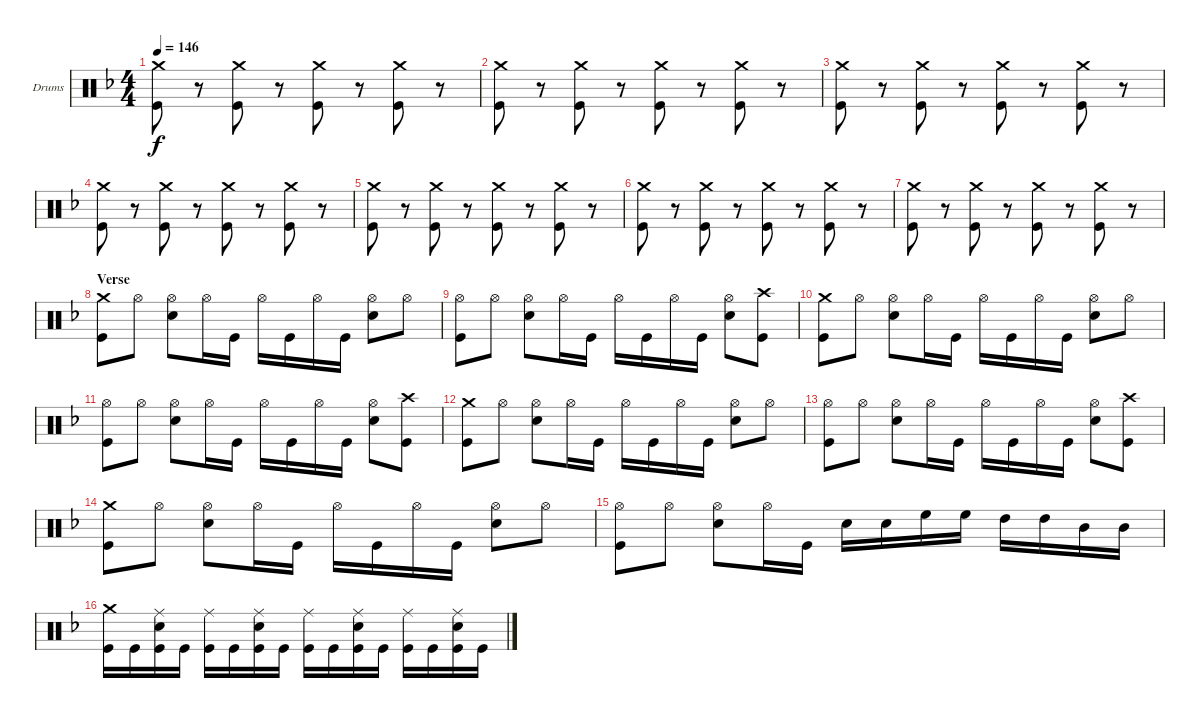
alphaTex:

\defaultSystemsLayout 4
\bracketExtendMode groupsimilarinstruments
\firstSystemTrackNameOrientation horizontal
\otherSystemsTrackNameOrientation horizontal
\track ("Gar Samuelson (Drums)" "Drums") {instrument percussion}
\staff {score}
\articulation defaults
\ts (4 4)
\tempo 146
\clef neutral
\scale
0.333333
\ks dminor
("Crash medium (hit)" "Kick (hit)").8{dy f} r.8 ("Crash medium (hit)" "Kick (hit)").8 r.8 ("Crash medium (hit)" "Kick (hit)").8 r.8 ("Crash medium (hit)" "Kick (hit)").8 r.8 |
\scale
0.333333 ("Crash medium (hit)" "Kick (hit)").8 r.8 ("Crash medium (hit)" "Kick (hit)").8 r.8 ("Crash medium (hit)" "Kick (hit)").8 r.8 ("Crash medium (hit)" "Kick (hit)").8 r.8 |
\scale
0.333333 ("Crash medium (hit)" "Kick (hit)").8 r.8 ("Crash medium (hit)" "Kick (hit)").8 r.8 ("Crash medium (hit)" "Kick (hit)").8 r.8 ("Crash medium (hit)" "Kick (hit)").8 r.8 |
\scale
0.333333 ("Crash medium (hit)" "Kick (hit)").8 r.8 ("Crash medium (hit)" "Kick (hit)").8 r.8 ("Crash medium (hit)" "Kick (hit)").8 r.8 ("Crash medium (hit)" "Kick (hit)").8 r.8 |
\scale
0.333333 ("Crash medium (hit)" "Kick (hit)").8 r.8 ("Crash medium (hit)" "Kick (hit)").8 r.8 ("Crash medium (hit)" "Kick (hit)").8 r.8 ("Crash medium (hit)" "Kick (hit)").8 r.8 |
\scale
0.333333 ("Crash medium (hit)" "Kick (hit)").8 r.8 ("Crash medium (hit)" "Kick (hit)").8 r.8 ("Crash medium (hit)" "Kick (hit)").8 r.8 ("Crash medium (hit)" "Kick (hit)").8 r.8 |
\scale
0.333333 ("Crash medium (hit)" "Kick (hit)").8 r.8 ("Crash medium (hit)" "Kick (hit)").8 r.8 ("Crash medium (hit)" "Kick (hit)").8 r.8 ("Crash medium (hit)" "Kick (hit)").8 r.8 |
\section ("" "Verse")
\scale
0.333333 ("Crash medium (hit)" "Kick (hit)").8 "Hi-Hat (open)".8 ("Hi-Hat (open)" "Snare (hit) 2").8 "Hi-Hat (open)".16 "Kick (hit)".16 "Hi-Hat (open)".16 "Kick (hit)".16 "Hi-Hat (open)".16 "Kick (hit)".16 ("Hi-Hat (open)" "Snare (hit) 2").8 "Hi-Hat (open)".8 |
\scale
0.333333 ("Hi-Hat (open)" "Kick (hit)").8 "Hi-Hat (open)".8 ("Hi-Hat (open)" "Snare (hit) 2").8 "Hi-Hat (open)".16 "Kick (hit)".16 "Hi-Hat (open)".16 "Kick (hit)".16 "Hi-Hat (open)".16 "Kick (hit)".16 ("Hi-Hat (open)" "Snare (hit) 2").8 ("Crash high (hit)" "Kick (hit)").8 |
\scale
0.333333 ("Crash medium (hit)" "Kick (hit)").8 "Hi-Hat (open)".8 ("Hi-Hat (open)" "Snare (hit) 2").8 "Hi-Hat (open)".16 "Kick (hit)".16 "Hi-Hat (open)".16 "Kick (hit)".16 "Hi-Hat (open)".16 "Kick (hit)".16 ("Hi-Hat (open)" "Snare (hit) 2").8 "Hi-Hat (open)".8 |
\scale
0.333333 ("Hi-Hat (open)" "Kick (hit)").8 "Hi-Hat (open)".8 ("Hi-Hat (open)" "Snare (hit) 2").8 "Hi-Hat (open)".16 "Kick (hit)".16 "Hi-Hat (open)".16 "Kick (hit)".16 "Hi-Hat (open)".16 "Kick (hit)".16 ("Hi-Hat (open)" "Snare (hit) 2").8 ("Crash high (hit)" "Kick (hit)").8 |
\scale
0.333333 ("Crash medium (hit)" "Kick (hit)").8 "Hi-Hat (open)".8 ("Hi-Hat (open)" "Snare (hit) 2").8 "Hi-Hat (open)".16 "Kick (hit)".16 "Hi-Hat (open)".16 "Kick (hit)".16 "Hi-Hat (open)".16 "Kick (hit)".16 ("Hi-Hat (open)" "Snare (hit) 2").8 "Hi-Hat (open)".8 |
\scale
0.333333 ("Hi-Hat (open)" "Kick (hit)").8 "Hi-Hat (open)".8 ("Hi-Hat (open)" "Snare (hit) 2").8 "Hi-Hat (open)".16 "Kick (hit)".16 "Hi-Hat (open)".16 "Kick (hit)".16 "Hi-Hat (open)".16 "Kick (hit)".16 ("Hi-Hat (open)" "Snare (hit) 2").8 ("Crash high (hit)" "Kick (hit)").8 |
\scale
0.333333 ("Crash medium (hit)" "Kick (hit)").8 "Hi-Hat (open)".8 ("Hi-Hat (open)" "Snare (hit) 2").8 "Hi-Hat (open)".16 "Kick (hit)".16 "Hi-Hat (open)".16 "Kick (hit)".16 "Hi-Hat (open)".16 "Kick (hit)".16 ("Hi-Hat (open)" "Snare (hit) 2").8 "Hi-Hat (open)".8 |
\scale
0.333333 ("Hi-Hat (open)" "Kick (hit)").8 "Hi-Hat (open)".8 ("Hi-Hat (open)" "Snare (hit) 2").8 "Hi-Hat (open)".16 "Kick (hit)".16 "Snare (hit) 2".16 "Snare (hit) 2".16 "High Floor Tom (hit)".16 "High Floor Tom (hit)".16 "High Tom (hit)".16 "High Tom (hit)".16 "Mid Tom (hit)".16 "Mid Tom (hit)".16 |
\scale
0.333333 ("Crash medium (hit)" "Kick (hit)").16 "Kick (hit)".16 ("Ride (middle)" "Snare (hit) 2" "Kick (hit)").16 "Kick (hit)".16 ("Ride (middle)" "Kick (hit)").16 "Kick (hit)".16 ("Ride (middle)" "Snare (hit) 2" "Kick (hit)").16 "Kick (hit)".16 ("Ride (middle)" "Kick (hit)").16 "Kick (hit)".16 ("Ride (middle)" "Snare (hit) 2" "Kick (hit)").16 "Kick (hit)".16 ("Ride (middle)" "Kick (hit)").16 "Kick (hit)".16 ("Ride (middle)" "Snare (hit) 2" "Kick (hit)").16 "Kick (hit)".16
